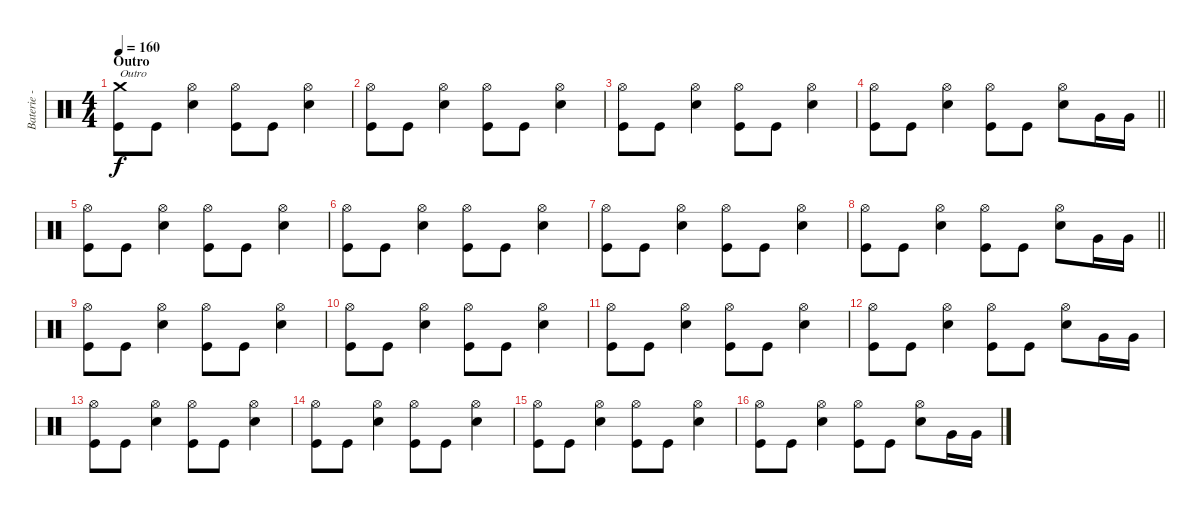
\track ("Baterie - Alex" "Baterie - ") {instrument percussion}
\staff {score}
\articulation defaults
\ts (4 4)
\section ("" "Outro")
\tempo 160
\clef neutral
\ks c
("Crash medium (hit)" "Kick (hit)").8{txt "Outro" dy f} "Kick (hit)".8 ("Hi-Hat (open)" "Electric Snare (hit)").4 ("Hi-Hat (open)" "Kick (hit)").8 "Kick (hit)".8 ("Hi-Hat (open)" "Electric Snare (hit)").4 |
("Hi-Hat (open)" "Kick (hit)").8 "Kick (hit)".8 ("Hi-Hat (open)" "Electric Snare (hit)").4 ("Hi-Hat (open)" "Kick (hit)").8 "Kick (hit)".8 ("Hi-Hat (open)" "Electric Snare (hit)").4 |
("Hi-Hat (open)" "Kick (hit)").8 "Kick (hit)".8 ("Hi-Hat (open)" "Electric Snare (hit)").4 ("Hi-Hat (open)" "Kick (hit)").8 "Kick (hit)".8 ("Hi-Hat (open)" "Electric Snare (hit)").4 |
\barLineRight lightlight
("Hi-Hat (open)" "Kick (hit)").8 "Kick (hit)".8 ("Hi-Hat (open)" "Electric Snare (hit)").4 ("Hi-Hat (open)" "Kick (hit)").8 "Kick (hit)".8 ("Hi-Hat (open)" "Electric Snare (hit)").8 "Very Low Tom (hit)".16 "Very Low Tom (hit)".16 |
("Hi-Hat (open)" "Kick (hit)").8 "Kick (hit)".8 ("Hi-Hat (open)" "Electric Snare (hit)").4 ("Hi-Hat (open)" "Kick (hit)").8 "Kick (hit)".8 ("Hi-Hat (open)" "Electric Snare (hit)").4 |
("Hi-Hat (open)" "Kick (hit)").8 "Kick (hit)".8 ("Hi-Hat (open)" "Electric Snare (hit)").4 ("Hi-Hat (open)" "Kick (hit)").8 "Kick (hit)".8 ("Hi-Hat (open)" "Electric Snare (hit)").4 |
("Hi-Hat (open)" "Kick (hit)").8 "Kick (hit)".8 ("Hi-Hat (open)" "Electric Snare (hit)").4 ("Hi-Hat (open)" "Kick (hit)").8 "Kick (hit)".8 ("Hi-Hat (open)" "Electric Snare (hit)").4 |
\barLineRight lightlight
("Hi-Hat (open)" "Kick (hit)").8 "Kick (hit)".8 ("Hi-Hat (open)" "Electric Snare (hit)").4 ("Hi-Hat (open)" "Kick (hit)").8 "Kick (hit)".8 ("Hi-Hat (open)" "Electric Snare (hit)").8 "Very Low Tom (hit)".16 "Very Low Tom (hit)".16 |
\section ("" "")
("Hi-Hat (open)" "Kick (hit)").8 "Kick (hit)".8 ("Hi-Hat (open)" "Electric Snare (hit)").4 ("Hi-Hat (open)" "Kick (hit)").8 "Kick (hit)".8 ("Hi-Hat (open)" "Electric Snare (hit)").4 |
("Hi-Hat (open)" "Kick (hit)").8 "Kick (hit)".8 ("Hi-Hat (open)" "Electric Snare (hit)").4 ("Hi-Hat (open)" "Kick (hit)").8 "Kick (hit)".8 ("Hi-Hat (open)" "Electric Snare (hit)").4 |
("Hi-Hat (open)" "Kick (hit)").8 "Kick (hit)".8 ("Hi-Hat (open)" "Electric Snare (hit)").4 ("Hi-Hat (open)" "Kick (hit)").8 "Kick (hit)".8 ("Hi-Hat (open)" "Electric Snare (hit)").4 |
("Hi-Hat (open)" "Kick (hit)").8 "Kick (hit)".8 ("Hi-Hat (open)" "Electric Snare (hit)").4 ("Hi-Hat (open)" "Kick (hit)").8 "Kick (hit)".8 ("Hi-Hat (open)" "Electric Snare (hit)").8 "Very Low Tom (hit)".16 "Very Low Tom (hit)".16 |
("Hi-Hat (open)" "Kick (hit)").8 "Kick (hit)".8 ("Hi-Hat (open)" "Electric Snare (hit)").4 ("Hi-Hat (open)" "Kick (hit)").8 "Kick (hit)".8 ("Hi-Hat (open)" "Electric Snare (hit)").4 |
("Hi-Hat (open)" "Kick (hit)").8 "Kick (hit)".8 ("Hi-Hat (open)" "Electric Snare (hit)").4 ("Hi-Hat (open)" "Kick (hit)").8 "Kick (hit)".8 ("Hi-Hat (open)" "Electric Snare (hit)").4 |
("Hi-Hat (open)" "Kick (hit)").8 "Kick (hit)".8 ("Hi-Hat (open)" "Electric Snare (hit)").4 ("Hi-Hat (open)" "Kick (hit)").8 "Kick (hit)".8 ("Hi-Hat (open)" "Electric Snare (hit)").4 |
("Hi-Hat (open)" "Kick (hit)").8 "Kick (hit)".8 ("Hi-Hat (open)" "Electric Snare (hit)").4 ("Hi-Hat (open)" "Kick (hit)").8 "Kick (hit)".8 ("Hi-Hat (open)" "Electric Snare (hit)").8 "Very Low Tom (hit)".16 "Very Low Tom (hit)".16
